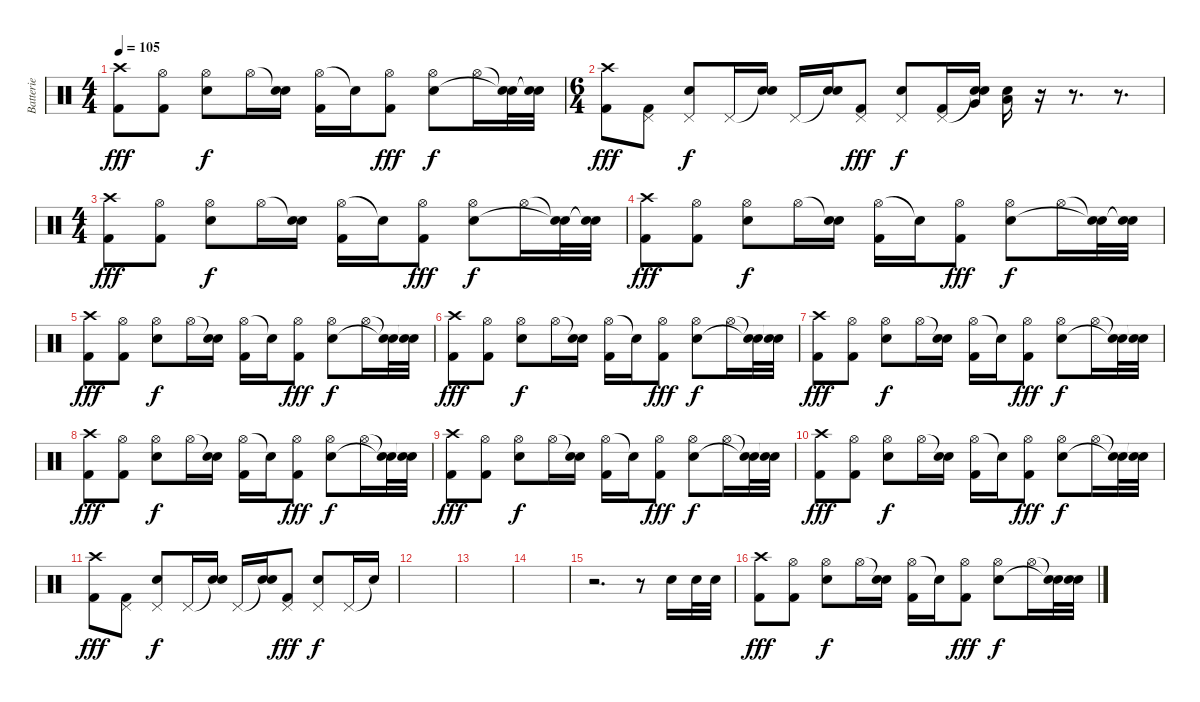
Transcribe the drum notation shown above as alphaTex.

\track ("Batterie" "Batterie") {instrument percussion}
\staff {score}
\articulation defaults
\ts (4 4)
\tempo 105
\clef neutral
\ks c
("Crash high (hit)" "Kick (hit) 2").8{dy fff} ("Hi-Hat (open)" "Kick (hit) 2").8 ("Hi-Hat (open)" "Electric Snare (hit)").8{dy f} "Hi-Hat (open)".16 ("Snare (hit)"{t} "Electric Snare (hit)").16 ("Hi-Hat (open)" "Kick (hit) 2").16 "Snare (hit)"{t}.16 ("Hi-Hat (open)" "Kick (hit) 2").8{dy fff} ("Hi-Hat (open)" "Electric Snare (hit)").8{dy f} "Hi-Hat (open)".16 ("Snare (hit)"{t} "Snare (hit) 2"{t}).32 ("Snare (hit)"{t} "Snare (hit) 2"{t}).32 |
\ts (6 4)
("Crash high (hit)" "Kick (hit) 2").8{dy fff} ("Pedal Hi-Hat (hit)" "Kick (hit) 2").8 ("Pedal Hi-Hat (hit)" "Electric Snare (hit)").8{dy f} "Pedal Hi-Hat (hit)".16 ("Snare (hit)"{t} "Electric Snare (hit)").16 "Pedal Hi-Hat (hit)".16 ("Snare (hit)"{t} "Electric Snare (hit)").16 ("Pedal Hi-Hat (hit)" "Kick (hit) 2").8{dy fff} ("Pedal Hi-Hat (hit)" "Electric Snare (hit)").8{dy f} ("Pedal Hi-Hat (hit)" "Kick (hit) 2").16 ("Electric Snare (hit)"{t} "Electric Snare (hit)" "Very Low Tom (hit)").16 ("Electric Snare (hit)" "Low Tom (hit)").16 r.16 r.8{d} r.8{d} |
\ts (4 4)
("Crash high (hit)" "Kick (hit) 2").8{dy fff} ("Hi-Hat (open)" "Kick (hit) 2").8 ("Hi-Hat (open)" "Electric Snare (hit)").8{dy f} "Hi-Hat (open)".16 ("Snare (hit)"{t} "Electric Snare (hit)").16 ("Hi-Hat (open)" "Kick (hit) 2").16 "Snare (hit)"{t}.16 ("Hi-Hat (open)" "Kick (hit) 2").8{dy fff} ("Hi-Hat (open)" "Electric Snare (hit)").8{dy f} "Hi-Hat (open)".16 ("Snare (hit)"{t} "Snare (hit) 2"{t}).32 ("Snare (hit)"{t} "Snare (hit) 2"{t}).32 |
("Crash high (hit)" "Kick (hit) 2").8{dy fff} ("Hi-Hat (open)" "Kick (hit) 2").8 ("Hi-Hat (open)" "Electric Snare (hit)").8{dy f} "Hi-Hat (open)".16 ("Snare (hit)"{t} "Electric Snare (hit)").16 ("Hi-Hat (open)" "Kick (hit) 2").16 "Snare (hit)"{t}.16 ("Hi-Hat (open)" "Kick (hit) 2").8{dy fff} ("Hi-Hat (open)" "Electric Snare (hit)").8{dy f} "Hi-Hat (open)".16 ("Snare (hit)"{t} "Snare (hit) 2"{t}).32 ("Snare (hit)"{t} "Snare (hit) 2"{t}).32 |
("Crash high (hit)" "Kick (hit) 2").8{dy fff} ("Hi-Hat (open)" "Kick (hit) 2").8 ("Hi-Hat (open)" "Electric Snare (hit)").8{dy f} "Hi-Hat (open)".16 ("Snare (hit)"{t} "Electric Snare (hit)").16 ("Hi-Hat (open)" "Kick (hit) 2").16 "Snare (hit)"{t}.16 ("Hi-Hat (open)" "Kick (hit) 2").8{dy fff} ("Hi-Hat (open)" "Electric Snare (hit)").8{dy f} "Hi-Hat (open)".16 ("Snare (hit)"{t} "Snare (hit) 2"{t}).32 ("Snare (hit)"{t} "Snare (hit) 2"{t}).32 |
("Crash high (hit)" "Kick (hit) 2").8{dy fff} ("Hi-Hat (open)" "Kick (hit) 2").8 ("Hi-Hat (open)" "Electric Snare (hit)").8{dy f} "Hi-Hat (open)".16 ("Snare (hit)"{t} "Electric Snare (hit)").16 ("Hi-Hat (open)" "Kick (hit) 2").16 "Snare (hit)"{t}.16 ("Hi-Hat (open)" "Kick (hit) 2").8{dy fff} ("Hi-Hat (open)" "Electric Snare (hit)").8{dy f} "Hi-Hat (open)".16 ("Snare (hit)"{t} "Snare (hit) 2"{t}).32 ("Snare (hit)"{t} "Snare (hit) 2"{t}).32 |
("Crash high (hit)" "Kick (hit) 2").8{dy fff} ("Hi-Hat (open)" "Kick (hit) 2").8 ("Hi-Hat (open)" "Electric Snare (hit)").8{dy f} "Hi-Hat (open)".16 ("Snare (hit)"{t} "Electric Snare (hit)").16 ("Hi-Hat (open)" "Kick (hit) 2").16 "Snare (hit)"{t}.16 ("Hi-Hat (open)" "Kick (hit) 2").8{dy fff} ("Hi-Hat (open)" "Electric Snare (hit)").8{dy f} "Hi-Hat (open)".16 ("Snare (hit)"{t} "Snare (hit) 2"{t}).32 ("Snare (hit)"{t} "Snare (hit) 2"{t}).32 |
("Crash high (hit)" "Kick (hit) 2").8{dy fff} ("Hi-Hat (open)" "Kick (hit) 2").8 ("Hi-Hat (open)" "Electric Snare (hit)").8{dy f} "Hi-Hat (open)".16 ("Snare (hit)"{t} "Electric Snare (hit)").16 ("Hi-Hat (open)" "Kick (hit) 2").16 "Snare (hit)"{t}.16 ("Hi-Hat (open)" "Kick (hit) 2").8{dy fff} ("Hi-Hat (open)" "Electric Snare (hit)").8{dy f} "Hi-Hat (open)".16 ("Snare (hit)"{t} "Snare (hit) 2"{t}).32 ("Snare (hit)"{t} "Snare (hit) 2"{t}).32 |
("Crash high (hit)" "Kick (hit) 2").8{dy fff} ("Hi-Hat (open)" "Kick (hit) 2").8 ("Hi-Hat (open)" "Electric Snare (hit)").8{dy f} "Hi-Hat (open)".16 ("Snare (hit)"{t} "Electric Snare (hit)").16 ("Hi-Hat (open)" "Kick (hit) 2").16 "Snare (hit)"{t}.16 ("Hi-Hat (open)" "Kick (hit) 2").8{dy fff} ("Hi-Hat (open)" "Electric Snare (hit)").8{dy f} "Hi-Hat (open)".16 ("Snare (hit)"{t} "Snare (hit) 2"{t}).32 ("Snare (hit)"{t} "Snare (hit) 2"{t}).32 |
("Crash high (hit)" "Kick (hit) 2").8{dy fff} ("Hi-Hat (open)" "Kick (hit) 2").8 ("Hi-Hat (open)" "Electric Snare (hit)").8{dy f} "Hi-Hat (open)".16 ("Snare (hit)"{t} "Electric Snare (hit)").16 ("Hi-Hat (open)" "Kick (hit) 2").16 "Snare (hit)"{t}.16 ("Hi-Hat (open)" "Kick (hit) 2").8{dy fff} ("Hi-Hat (open)" "Electric Snare (hit)").8{dy f} "Hi-Hat (open)".16 ("Snare (hit)"{t} "Snare (hit) 2"{t}).32 ("Snare (hit)"{t} "Snare (hit) 2"{t}).32 |
("Crash high (hit)" "Kick (hit) 2").8{dy fff} ("Pedal Hi-Hat (hit)" "Kick (hit) 2").8 ("Pedal Hi-Hat (hit)" "Electric Snare (hit)").8{dy f} "Pedal Hi-Hat (hit)".16 ("Snare (hit)"{t} "Electric Snare (hit)").16 "Pedal Hi-Hat (hit)".16 ("Snare (hit)"{t} "Electric Snare (hit)").16 ("Pedal Hi-Hat (hit)" "Kick (hit) 2").8{dy fff} ("Pedal Hi-Hat (hit)" "Electric Snare (hit)").8{dy f} "Pedal Hi-Hat (hit)".16 "Electric Snare (hit)"{t}.16 |
|
|
|
r.2{d} r.8 "Electric Snare (hit)".16 "Electric Snare (hit)".32 "Electric Snare (hit)".32 |
("Crash high (hit)" "Kick (hit) 2").8{dy fff} ("Hi-Hat (open)" "Kick (hit) 2").8 ("Hi-Hat (open)" "Electric Snare (hit)").8{dy f} "Hi-Hat (open)".16 ("Snare (hit)"{t} "Electric Snare (hit)").16 ("Hi-Hat (open)" "Kick (hit) 2").16 "Snare (hit)"{t}.16 ("Hi-Hat (open)" "Kick (hit) 2").8{dy fff} ("Hi-Hat (open)" "Electric Snare (hit)").8{dy f} "Hi-Hat (open)".16 ("Snare (hit)"{t} "Snare (hit) 2"{t}).32 ("Snare (hit)"{t} "Snare (hit) 2"{t}).32
